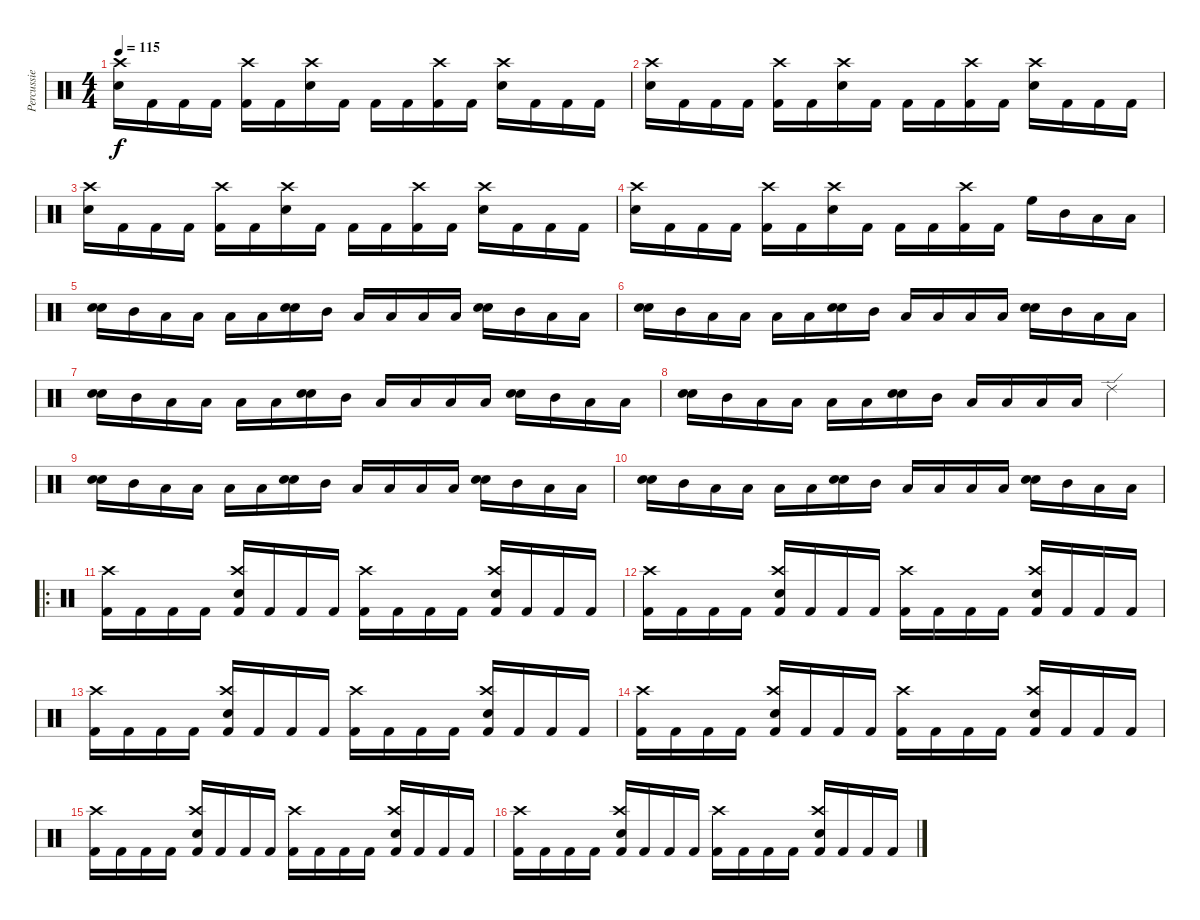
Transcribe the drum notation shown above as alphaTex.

\track ("Percussie" "Percussie") {instrument percussion}
\staff {score}
\articulation defaults
\ts (4 4)
\tempo 115
\clef neutral
\ks c
("Snare (hit) 2" "Crash high (hit)").16{dy f} "Kick (hit) 2".16 "Kick (hit) 2".16 "Kick (hit) 2".16 ("Kick (hit) 2" "Crash high (hit)").16 "Kick (hit) 2".16 ("Snare (hit) 2" "Crash high (hit)").16 "Kick (hit) 2".16 "Kick (hit) 2".16 "Kick (hit) 2".16 ("Kick (hit) 2" "Crash high (hit)").16 "Kick (hit) 2".16 ("Snare (hit) 2" "Crash high (hit)").16 "Kick (hit) 2".16 "Kick (hit) 2".16 "Kick (hit) 2".16 |
("Snare (hit) 2" "Crash high (hit)").16 "Kick (hit) 2".16 "Kick (hit) 2".16 "Kick (hit) 2".16 ("Kick (hit) 2" "Crash high (hit)").16 "Kick (hit) 2".16 ("Snare (hit) 2" "Crash high (hit)").16 "Kick (hit) 2".16 "Kick (hit) 2".16 "Kick (hit) 2".16 ("Kick (hit) 2" "Crash high (hit)").16 "Kick (hit) 2".16 ("Snare (hit) 2" "Crash high (hit)").16 "Kick (hit) 2".16 "Kick (hit) 2".16 "Kick (hit) 2".16 |
("Snare (hit) 2" "Crash high (hit)").16 "Kick (hit) 2".16 "Kick (hit) 2".16 "Kick (hit) 2".16 ("Kick (hit) 2" "Crash high (hit)").16 "Kick (hit) 2".16 ("Snare (hit) 2" "Crash high (hit)").16 "Kick (hit) 2".16 "Kick (hit) 2".16 "Kick (hit) 2".16 ("Kick (hit) 2" "Crash high (hit)").16 "Kick (hit) 2".16 ("Snare (hit) 2" "Crash high (hit)").16 "Kick (hit) 2".16 "Kick (hit) 2".16 "Kick (hit) 2".16 |
("Snare (hit) 2" "Crash high (hit)").16 "Kick (hit) 2".16 "Kick (hit) 2".16 "Kick (hit) 2".16 ("Kick (hit) 2" "Crash high (hit)").16 "Kick (hit) 2".16 ("Snare (hit) 2" "Crash high (hit)").16 "Kick (hit) 2".16 "Kick (hit) 2".16 "Kick (hit) 2".16 ("Kick (hit) 2" "Crash high (hit)").16 "Kick (hit) 2".16 "High Floor Tom (hit)".16 "Mid Tom (hit)".16 "Low Tom (hit)".16 "Low Floor Tom (hit)".16 |
("Snare (hit) 2" "Snare (hit) 2").16{bd 480} "Mid Tom (hit)".16 "Low Tom (hit)".16 "Low Floor Tom (hit)".16 "Low Tom (hit)".16 "Low Floor Tom (hit)".16 ("Snare (hit) 2" "Snare (hit) 2").16{bd 480} "Mid Tom (hit)".16 "Low Tom (hit)".16 "Low Floor Tom (hit)".16 "Low Tom (hit)".16 "Low Floor Tom (hit)".16 ("Snare (hit) 2" "Snare (hit) 2").16{bd 480} "Mid Tom (hit)".16 "Low Tom (hit)".16 "Low Floor Tom (hit)".16 |
("Snare (hit) 2" "Snare (hit) 2").16{bd 480} "Mid Tom (hit)".16 "Low Tom (hit)".16 "Low Floor Tom (hit)".16 "Low Tom (hit)".16 "Low Floor Tom (hit)".16 ("Snare (hit) 2" "Snare (hit) 2").16{bd 480} "Mid Tom (hit)".16 "Low Tom (hit)".16 "Low Floor Tom (hit)".16 "Low Tom (hit)".16 "Low Floor Tom (hit)".16 ("Snare (hit) 2" "Snare (hit) 2").16{bd 480} "Mid Tom (hit)".16 "Low Tom (hit)".16 "Low Floor Tom (hit)".16 |
("Snare (hit) 2" "Snare (hit) 2").16{bd 480} "Mid Tom (hit)".16 "Low Tom (hit)".16 "Low Floor Tom (hit)".16 "Low Tom (hit)".16 "Low Floor Tom (hit)".16 ("Snare (hit) 2" "Snare (hit) 2").16{bd 480} "Mid Tom (hit)".16 "Low Tom (hit)".16 "Low Floor Tom (hit)".16 "Low Tom (hit)".16 "Low Floor Tom (hit)".16 ("Snare (hit) 2" "Snare (hit) 2").16{bd 480} "Mid Tom (hit)".16 "Low Tom (hit)".16 "Low Floor Tom (hit)".16 |
("Snare (hit) 2" "Snare (hit) 2").16{bd 480} "Mid Tom (hit)".16 "Low Tom (hit)".16 "Low Floor Tom (hit)".16 "Low Tom (hit)".16 "Low Floor Tom (hit)".16 ("Snare (hit) 2" "Snare (hit) 2").16{bd 480} "Mid Tom (hit)".16 "Low Tom (hit)".16 "Low Floor Tom (hit)".16 "Low Tom (hit)".16 "Low Floor Tom (hit)".16 "Ride (edge) 2".4 |
("Snare (hit) 2" "Snare (hit) 2").16{bd 480} "Mid Tom (hit)".16 "Low Tom (hit)".16 "Low Floor Tom (hit)".16 "Low Tom (hit)".16 "Low Floor Tom (hit)".16 ("Snare (hit) 2" "Snare (hit) 2").16{bd 480} "Mid Tom (hit)".16 "Low Tom (hit)".16 "Low Floor Tom (hit)".16 "Low Tom (hit)".16 "Low Floor Tom (hit)".16 ("Snare (hit) 2" "Snare (hit) 2").16{bd 480} "Mid Tom (hit)".16 "Low Tom (hit)".16 "Low Floor Tom (hit)".16 |
("Snare (hit) 2" "Snare (hit) 2").16{bd 480} "Mid Tom (hit)".16 "Low Tom (hit)".16 "Low Floor Tom (hit)".16 "Low Tom (hit)".16 "Low Floor Tom (hit)".16 ("Snare (hit) 2" "Snare (hit) 2").16{bd 480} "Mid Tom (hit)".16 "Low Tom (hit)".16 "Low Floor Tom (hit)".16 "Low Tom (hit)".16 "Low Floor Tom (hit)".16 ("Snare (hit) 2" "Snare (hit) 2").16{bd 480} "Mid Tom (hit)".16 "Low Tom (hit)".16 "Low Floor Tom (hit)".16 |
\ro
("Crash high (hit)" "Kick (hit) 2").16 "Kick (hit) 2".16 "Kick (hit) 2".16 "Kick (hit) 2".16 ("Crash high (hit)" "Snare (hit) 2" "Kick (hit) 2").16 "Kick (hit) 2".16 "Kick (hit) 2".16 "Kick (hit) 2".16 ("Crash high (hit)" "Kick (hit) 2").16 "Kick (hit) 2".16 "Kick (hit) 2".16 "Kick (hit) 2".16 ("Crash high (hit)" "Snare (hit) 2" "Kick (hit) 2").16 "Kick (hit) 2".16 "Kick (hit) 2".16 "Kick (hit) 2".16 |
("Crash high (hit)" "Kick (hit) 2").16 "Kick (hit) 2".16 "Kick (hit) 2".16 "Kick (hit) 2".16 ("Crash high (hit)" "Snare (hit) 2" "Kick (hit) 2").16 "Kick (hit) 2".16 "Kick (hit) 2".16 "Kick (hit) 2".16 ("Crash high (hit)" "Kick (hit) 2").16 "Kick (hit) 2".16 "Kick (hit) 2".16 "Kick (hit) 2".16 ("Crash high (hit)" "Snare (hit) 2" "Kick (hit) 2").16 "Kick (hit) 2".16 "Kick (hit) 2".16 "Kick (hit) 2".16 |
("Crash high (hit)" "Kick (hit) 2").16 "Kick (hit) 2".16 "Kick (hit) 2".16 "Kick (hit) 2".16 ("Crash high (hit)" "Snare (hit) 2" "Kick (hit) 2").16 "Kick (hit) 2".16 "Kick (hit) 2".16 "Kick (hit) 2".16 ("Crash high (hit)" "Kick (hit) 2").16 "Kick (hit) 2".16 "Kick (hit) 2".16 "Kick (hit) 2".16 ("Crash high (hit)" "Snare (hit) 2" "Kick (hit) 2").16 "Kick (hit) 2".16 "Kick (hit) 2".16 "Kick (hit) 2".16 |
("Crash high (hit)" "Kick (hit) 2").16 "Kick (hit) 2".16 "Kick (hit) 2".16 "Kick (hit) 2".16 ("Crash high (hit)" "Snare (hit) 2" "Kick (hit) 2").16 "Kick (hit) 2".16 "Kick (hit) 2".16 "Kick (hit) 2".16 ("Crash high (hit)" "Kick (hit) 2").16 "Kick (hit) 2".16 "Kick (hit) 2".16 "Kick (hit) 2".16 ("Crash high (hit)" "Snare (hit) 2" "Kick (hit) 2").16 "Kick (hit) 2".16 "Kick (hit) 2".16 "Kick (hit) 2".16 |
("Crash high (hit)" "Kick (hit) 2").16 "Kick (hit) 2".16 "Kick (hit) 2".16 "Kick (hit) 2".16 ("Crash high (hit)" "Snare (hit) 2" "Kick (hit) 2").16 "Kick (hit) 2".16 "Kick (hit) 2".16 "Kick (hit) 2".16 ("Crash high (hit)" "Kick (hit) 2").16 "Kick (hit) 2".16 "Kick (hit) 2".16 "Kick (hit) 2".16 ("Crash high (hit)" "Snare (hit) 2" "Kick (hit) 2").16 "Kick (hit) 2".16 "Kick (hit) 2".16 "Kick (hit) 2".16 |
("Crash high (hit)" "Kick (hit) 2").16 "Kick (hit) 2".16 "Kick (hit) 2".16 "Kick (hit) 2".16 ("Crash high (hit)" "Snare (hit) 2" "Kick (hit) 2").16 "Kick (hit) 2".16 "Kick (hit) 2".16 "Kick (hit) 2".16 ("Crash high (hit)" "Kick (hit) 2").16 "Kick (hit) 2".16 "Kick (hit) 2".16 "Kick (hit) 2".16 ("Crash high (hit)" "Snare (hit) 2" "Kick (hit) 2").16 "Kick (hit) 2".16 "Kick (hit) 2".16 "Kick (hit) 2".16
